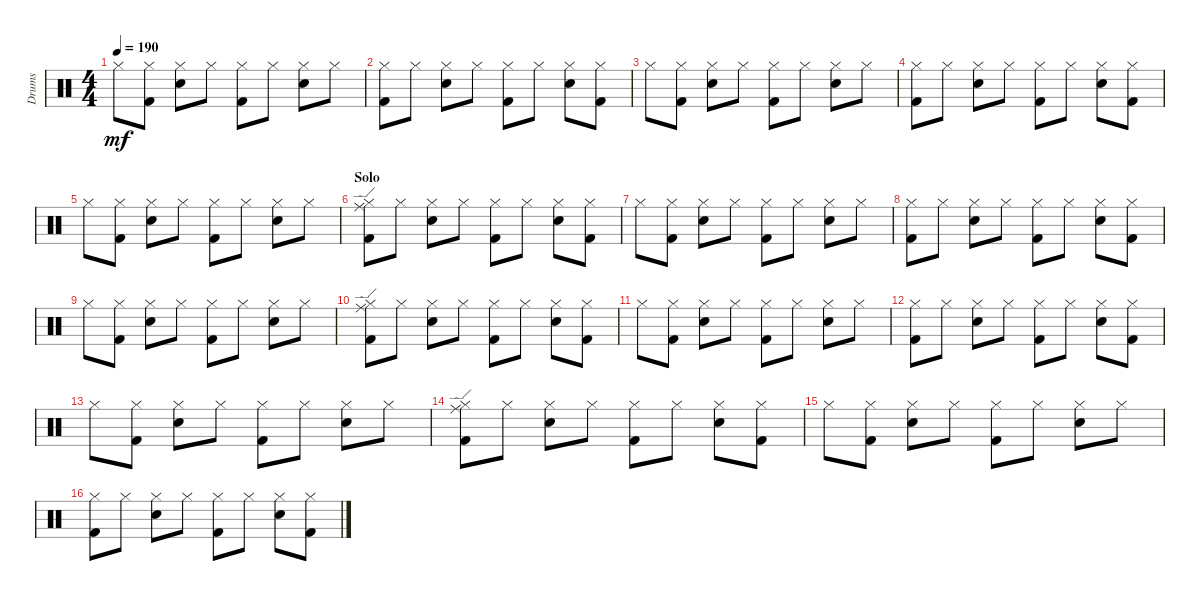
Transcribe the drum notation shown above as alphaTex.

\defaultSystemsLayout 4
\bracketExtendMode groupsimilarinstruments
\otherSystemsTrackNameOrientation horizontal
\track ("Prakarsh" "Drums") {instrument percussion}
\staff {score}
\articulation defaults
\ts (4 4)
\tempo 190
\clef neutral
\ks c "Hi-Hat (closed)".8{dy mf beam Down}
("Hi-Hat (closed)" "Kick (hit) 2").8{beam Down} ("Hi-Hat (closed)" "Snare (hit) 2").8{beam Down} "Hi-Hat (closed)".8{beam Down} ("Hi-Hat (closed)" "Kick (hit) 2").8{beam Down} "Hi-Hat (closed)".8{beam Down} ("Hi-Hat (closed)" "Snare (hit) 2").8{beam Down} "Hi-Hat (closed)".8{beam Down} |
("Kick (hit) 2" "Hi-Hat (closed)").8{beam Down} "Hi-Hat (closed)".8{beam Down} ("Hi-Hat (closed)" "Snare (hit) 2").8{beam Down} "Hi-Hat (closed)".8{beam Down} ("Hi-Hat (closed)" "Kick (hit) 2").8{beam Down} "Hi-Hat (closed)".8{beam Down} ("Hi-Hat (closed)" "Snare (hit) 2").8{beam Down} ("Hi-Hat (closed)" "Kick (hit) 2").8{beam Down} |
"Hi-Hat (closed)".8{beam Down} ("Hi-Hat (closed)" "Kick (hit) 2").8{beam Down} ("Hi-Hat (closed)" "Snare (hit) 2").8{beam Down} "Hi-Hat (closed)".8{beam Down} ("Hi-Hat (closed)" "Kick (hit) 2").8{beam Down} "Hi-Hat (closed)".8{beam Down} ("Hi-Hat (closed)" "Snare (hit) 2").8{beam Down} "Hi-Hat (closed)".8{beam Down} |
("Kick (hit) 2" "Hi-Hat (closed)").8{beam Down} "Hi-Hat (closed)".8{beam Down} ("Hi-Hat (closed)" "Snare (hit) 2").8{beam Down} "Hi-Hat (closed)".8{beam Down} ("Hi-Hat (closed)" "Kick (hit) 2").8{beam Down} "Hi-Hat (closed)".8{beam Down} ("Hi-Hat (closed)" "Snare (hit) 2").8{beam Down} ("Hi-Hat (closed)" "Kick (hit) 2").8{beam Down} |
"Hi-Hat (closed)".8{beam Down} ("Hi-Hat (closed)" "Kick (hit) 2").8{beam Down} ("Hi-Hat (closed)" "Snare (hit) 2").8{beam Down} "Hi-Hat (closed)".8{beam Down} ("Hi-Hat (closed)" "Kick (hit) 2").8{beam Down} "Hi-Hat (closed)".8{beam Down} ("Hi-Hat (closed)" "Snare (hit) 2").8{beam Down} "Hi-Hat (closed)".8{beam Down} |
\section ("" "Solo")
("Kick (hit) 2" "Hi-Hat (closed)" "Ride (edge)").8{beam Down} "Hi-Hat (closed)".8{beam Down} ("Hi-Hat (closed)" "Snare (hit) 2").8{beam Down} "Hi-Hat (closed)".8{beam Down} ("Hi-Hat (closed)" "Kick (hit) 2").8{beam Down} "Hi-Hat (closed)".8{beam Down} ("Hi-Hat (closed)" "Snare (hit) 2").8{beam Down} ("Hi-Hat (closed)" "Kick (hit) 2").8{beam Down} |
"Hi-Hat (closed)".8{beam Down} ("Hi-Hat (closed)" "Kick (hit) 2").8{beam Down} ("Hi-Hat (closed)" "Snare (hit) 2").8{beam Down} "Hi-Hat (closed)".8{beam Down} ("Hi-Hat (closed)" "Kick (hit) 2").8{beam Down} "Hi-Hat (closed)".8{beam Down} ("Hi-Hat (closed)" "Snare (hit) 2").8{beam Down} "Hi-Hat (closed)".8{beam Down} |
("Kick (hit) 2" "Hi-Hat (closed)").8{beam Down} "Hi-Hat (closed)".8{beam Down} ("Hi-Hat (closed)" "Snare (hit) 2").8{beam Down} "Hi-Hat (closed)".8{beam Down} ("Hi-Hat (closed)" "Kick (hit) 2").8{beam Down} "Hi-Hat (closed)".8{beam Down} ("Hi-Hat (closed)" "Snare (hit) 2").8{beam Down} ("Hi-Hat (closed)" "Kick (hit) 2").8{beam Down} |
"Hi-Hat (closed)".8{beam Down} ("Hi-Hat (closed)" "Kick (hit) 2").8{beam Down} ("Hi-Hat (closed)" "Snare (hit) 2").8{beam Down} "Hi-Hat (closed)".8{beam Down} ("Hi-Hat (closed)" "Kick (hit) 2").8{beam Down} "Hi-Hat (closed)".8{beam Down} ("Hi-Hat (closed)" "Snare (hit) 2").8{beam Down} "Hi-Hat (closed)".8{beam Down} |
("Kick (hit) 2" "Hi-Hat (closed)" "Ride (edge)").8{beam Down} "Hi-Hat (closed)".8{beam Down} ("Hi-Hat (closed)" "Snare (hit) 2").8{beam Down} "Hi-Hat (closed)".8{beam Down} ("Hi-Hat (closed)" "Kick (hit) 2").8{beam Down} "Hi-Hat (closed)".8{beam Down} ("Hi-Hat (closed)" "Snare (hit) 2").8{beam Down} ("Hi-Hat (closed)" "Kick (hit) 2").8{beam Down} |
"Hi-Hat (closed)".8{beam Down} ("Hi-Hat (closed)" "Kick (hit) 2").8{beam Down} ("Hi-Hat (closed)" "Snare (hit) 2").8{beam Down} "Hi-Hat (closed)".8{beam Down} ("Hi-Hat (closed)" "Kick (hit) 2").8{beam Down} "Hi-Hat (closed)".8{beam Down} ("Hi-Hat (closed)" "Snare (hit) 2").8{beam Down} "Hi-Hat (closed)".8{beam Down} |
("Kick (hit) 2" "Hi-Hat (closed)").8{beam Down} "Hi-Hat (closed)".8{beam Down} ("Hi-Hat (closed)" "Snare (hit) 2").8{beam Down} "Hi-Hat (closed)".8{beam Down} ("Hi-Hat (closed)" "Kick (hit) 2").8{beam Down} "Hi-Hat (closed)".8{beam Down} ("Hi-Hat (closed)" "Snare (hit) 2").8{beam Down} ("Hi-Hat (closed)" "Kick (hit) 2").8{beam Down} |
"Hi-Hat (closed)".8{beam Down} ("Hi-Hat (closed)" "Kick (hit) 2").8{beam Down} ("Hi-Hat (closed)" "Snare (hit) 2").8{beam Down} "Hi-Hat (closed)".8{beam Down} ("Hi-Hat (closed)" "Kick (hit) 2").8{beam Down} "Hi-Hat (closed)".8{beam Down} ("Hi-Hat (closed)" "Snare (hit) 2").8{beam Down} "Hi-Hat (closed)".8{beam Down} |
("Kick (hit) 2" "Hi-Hat (closed)" "Ride (edge)").8{beam Down} "Hi-Hat (closed)".8{beam Down} ("Hi-Hat (closed)" "Snare (hit) 2").8{beam Down} "Hi-Hat (closed)".8{beam Down} ("Hi-Hat (closed)" "Kick (hit) 2").8{beam Down} "Hi-Hat (closed)".8{beam Down} ("Hi-Hat (closed)" "Snare (hit) 2").8{beam Down} ("Hi-Hat (closed)" "Kick (hit) 2").8{beam Down} |
"Hi-Hat (closed)".8{beam Down} ("Hi-Hat (closed)" "Kick (hit) 2").8{beam Down} ("Hi-Hat (closed)" "Snare (hit) 2").8{beam Down} "Hi-Hat (closed)".8{beam Down} ("Hi-Hat (closed)" "Kick (hit) 2").8{beam Down} "Hi-Hat (closed)".8{beam Down} ("Hi-Hat (closed)" "Snare (hit) 2").8{beam Down} "Hi-Hat (closed)".8{beam Down} |
("Kick (hit) 2" "Hi-Hat (closed)").8{beam Down} "Hi-Hat (closed)".8{beam Down} ("Hi-Hat (closed)" "Snare (hit) 2").8{beam Down} "Hi-Hat (closed)".8{beam Down} ("Hi-Hat (closed)" "Kick (hit) 2").8{beam Down} "Hi-Hat (closed)".8{beam Down} ("Hi-Hat (closed)" "Snare (hit) 2").8{beam Down} ("Hi-Hat (closed)" "Kick (hit) 2").8{beam Down}
